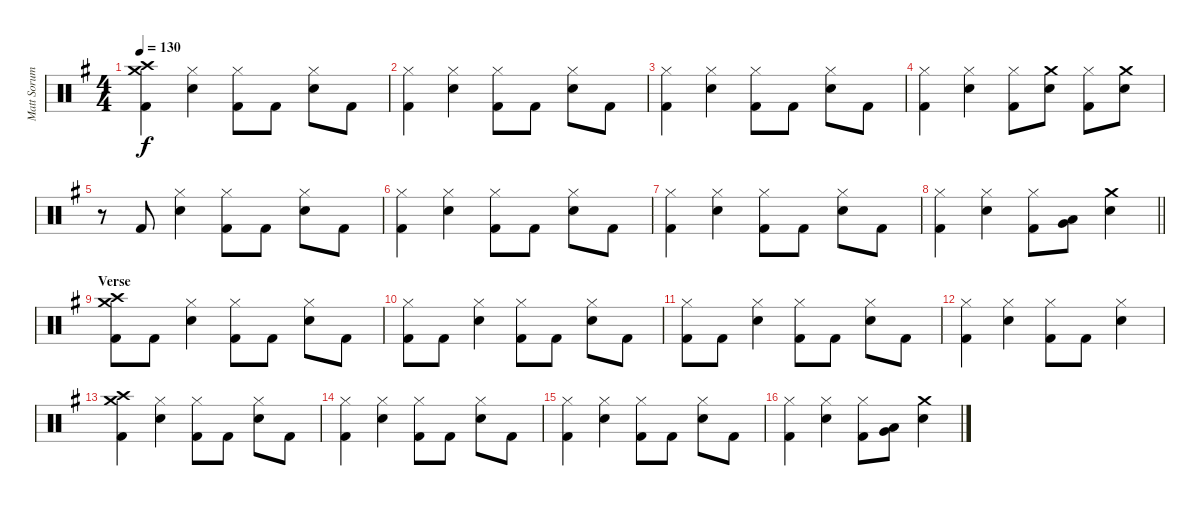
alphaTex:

\track ("Matt Sorum - Drums" "Matt Sorum") {instrument percussion}
\staff {score}
\articulation defaults
\ts (4 4)
\tempo 130
\clef neutral
\ks g
("Crash medium (hit)" "Crash high (hit)" "Kick (hit) 2").4{dy f} ("Hi-Hat (closed)" "Snare (hit) 2").4 ("Hi-Hat (closed)" "Kick (hit) 2").8 "Kick (hit) 2".8 ("Hi-Hat (closed)" "Snare (hit) 2").8 "Kick (hit) 2".8 |
("Hi-Hat (closed)" "Kick (hit) 2").4 ("Hi-Hat (closed)" "Snare (hit) 2").4 ("Hi-Hat (closed)" "Kick (hit) 2").8 "Kick (hit) 2".8 ("Hi-Hat (closed)" "Snare (hit) 2").8 "Kick (hit) 2".8 |
("Hi-Hat (closed)" "Kick (hit) 2").4 ("Hi-Hat (closed)" "Snare (hit) 2").4 ("Hi-Hat (closed)" "Kick (hit) 2").8 "Kick (hit) 2".8 ("Hi-Hat (closed)" "Snare (hit) 2").8 "Kick (hit) 2".8 |
("Hi-Hat (closed)" "Kick (hit) 2").4 ("Hi-Hat (closed)" "Snare (hit) 2").4 ("Hi-Hat (closed)" "Kick (hit) 2").8 ("Crash medium (hit)" "Snare (hit) 2").8 ("Hi-Hat (closed)" "Kick (hit) 2").8 ("Crash medium (hit)" "Snare (hit) 2").8 |
r.8 "Kick (hit) 2".8 ("Hi-Hat (closed)" "Snare (hit) 2").4 ("Hi-Hat (closed)" "Kick (hit) 2").8 "Kick (hit) 2".8 ("Hi-Hat (closed)" "Snare (hit) 2").8 "Kick (hit) 2".8 |
("Hi-Hat (closed)" "Kick (hit) 2").4 ("Hi-Hat (closed)" "Snare (hit) 2").4 ("Hi-Hat (closed)" "Kick (hit) 2").8 "Kick (hit) 2".8 ("Hi-Hat (closed)" "Snare (hit) 2").8 "Kick (hit) 2".8 |
("Hi-Hat (closed)" "Kick (hit) 2").4 ("Hi-Hat (closed)" "Snare (hit) 2").4 ("Hi-Hat (closed)" "Kick (hit) 2").8 "Kick (hit) 2".8 ("Hi-Hat (closed)" "Snare (hit) 2").8 "Kick (hit) 2".8 |
\barLineRight lightlight
("Hi-Hat (closed)" "Kick (hit) 2").4 ("Hi-Hat (closed)" "Snare (hit) 2").4 ("Hi-Hat (closed)" "Kick (hit) 2").8 ("Low Tom (hit)" "Very Low Tom (hit)").8 ("Crash medium (hit)" "Snare (hit) 2").4 |
\section ("" "Verse")
("Crash medium (hit)" "Crash high (hit)" "Kick (hit) 2").8 "Kick (hit) 2".8 ("Hi-Hat (closed)" "Snare (hit) 2").4 ("Hi-Hat (closed)" "Kick (hit) 2").8 "Kick (hit) 2".8 ("Hi-Hat (closed)" "Snare (hit) 2").8 "Kick (hit) 2".8 |
("Hi-Hat (closed)" "Kick (hit) 2").8 "Kick (hit) 2".8 ("Hi-Hat (closed)" "Snare (hit) 2").4 ("Hi-Hat (closed)" "Kick (hit) 2").8 "Kick (hit) 2".8 ("Hi-Hat (closed)" "Snare (hit) 2").8 "Kick (hit) 2".8 |
("Hi-Hat (closed)" "Kick (hit) 2").8 "Kick (hit) 2".8 ("Hi-Hat (closed)" "Snare (hit) 2").4 ("Hi-Hat (closed)" "Kick (hit) 2").8 "Kick (hit) 2".8 ("Hi-Hat (closed)" "Snare (hit) 2").8 "Kick (hit) 2".8 |
("Hi-Hat (closed)" "Kick (hit) 2").4 ("Hi-Hat (closed)" "Snare (hit) 2").4 ("Hi-Hat (closed)" "Kick (hit) 2").8 "Kick (hit) 2".8 ("Hi-Hat (closed)" "Snare (hit) 2").4 |
("Crash medium (hit)" "Crash high (hit)" "Kick (hit) 2").4 ("Hi-Hat (closed)" "Snare (hit) 2").4 ("Hi-Hat (closed)" "Kick (hit) 2").8 "Kick (hit) 2".8 ("Hi-Hat (closed)" "Snare (hit) 2").8 "Kick (hit) 2".8 |
("Hi-Hat (closed)" "Kick (hit) 2").4 ("Hi-Hat (closed)" "Snare (hit) 2").4 ("Hi-Hat (closed)" "Kick (hit) 2").8 "Kick (hit) 2".8 ("Hi-Hat (closed)" "Snare (hit) 2").8 "Kick (hit) 2".8 |
("Hi-Hat (closed)" "Kick (hit) 2").4 ("Hi-Hat (closed)" "Snare (hit) 2").4 ("Hi-Hat (closed)" "Kick (hit) 2").8 "Kick (hit) 2".8 ("Hi-Hat (closed)" "Snare (hit) 2").8 "Kick (hit) 2".8 |
("Hi-Hat (closed)" "Kick (hit) 2").4 ("Hi-Hat (closed)" "Snare (hit) 2").4 ("Hi-Hat (closed)" "Kick (hit) 2").8 ("Low Tom (hit)" "Very Low Tom (hit)").8 ("Crash medium (hit)" "Snare (hit) 2").4
